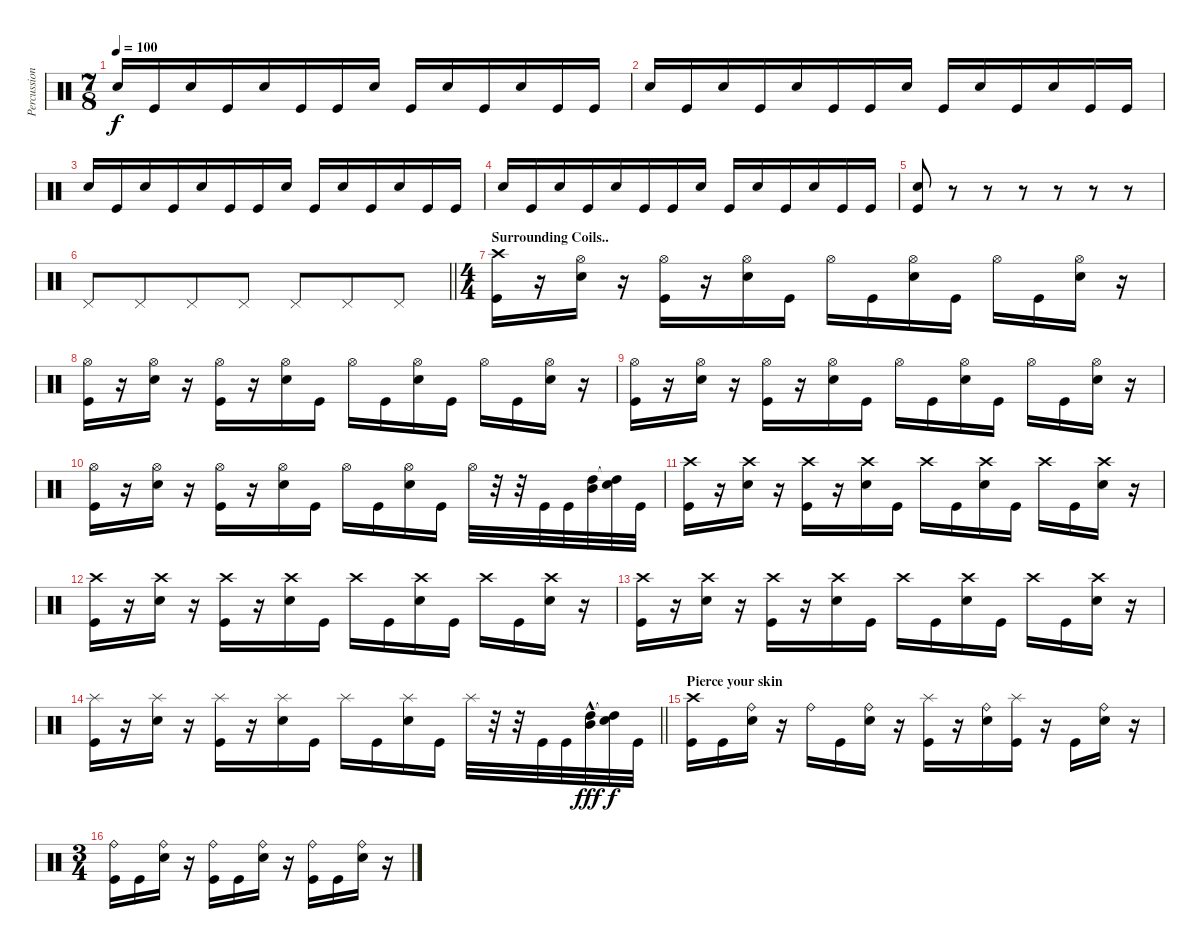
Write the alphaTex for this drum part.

\track ("Percussion" "Percussion") {instrument percussion}
\staff {score}
\articulation defaults
\ts (7 8)
\tempo 100
\clef neutral
\ks c "Snare (hit) 2".16{dy f} "Kick (hit)".16 "Snare (hit) 2".16 "Kick (hit)".16 "Snare (hit) 2".16 "Kick (hit)".16 "Kick (hit)".16 "Snare (hit) 2".16 "Kick (hit)".16 "Snare (hit) 2".16 "Kick (hit)".16 "Snare (hit) 2".16 "Kick (hit)".16 "Kick (hit)".16
|
"Snare (hit) 2".16 "Kick (hit)".16 "Snare (hit) 2".16 "Kick (hit)".16 "Snare (hit) 2".16 "Kick (hit)".16 "Kick (hit)".16 "Snare (hit) 2".16 "Kick (hit)".16 "Snare (hit) 2".16 "Kick (hit)".16 "Snare (hit) 2".16 "Kick (hit)".16 "Kick (hit)".16 |
"Snare (hit) 2".16 "Kick (hit)".16 "Snare (hit) 2".16 "Kick (hit)".16 "Snare (hit) 2".16 "Kick (hit)".16 "Kick (hit)".16 "Snare (hit) 2".16 "Kick (hit)".16 "Snare (hit) 2".16 "Kick (hit)".16 "Snare (hit) 2".16 "Kick (hit)".16 "Kick (hit)".16 |
"Snare (hit) 2".16 "Kick (hit)".16 "Snare (hit) 2".16 "Kick (hit)".16 "Snare (hit) 2".16 "Kick (hit)".16 "Kick (hit)".16 "Snare (hit) 2".16 "Kick (hit)".16 "Snare (hit) 2".16 "Kick (hit)".16 "Snare (hit) 2".16 "Kick (hit)".16 "Kick (hit)".16 |
("Kick (hit)" "Snare (hit) 2").8 r.8 r.8 r.8 r.8 r.8 r.8 |
\barLineRight lightlight "Pedal Hi-Hat (hit)".8 "Pedal Hi-Hat (hit)".8 "Pedal Hi-Hat (hit)".8 "Pedal Hi-Hat (hit)".8 "Pedal Hi-Hat (hit)".8 "Pedal Hi-Hat (hit)".8 "Pedal Hi-Hat (hit)".8
|
\ts (4 4)
\section ("" "Surrounding Coils..")
("Crash high (hit)" "Kick (hit)").16 r.16 ("Hi-Hat (open)" "Snare (hit) 2").16 r.16 ("Hi-Hat (open)" "Kick (hit)").16 r.16 ("Hi-Hat (open)" "Snare (hit) 2").16 "Kick (hit)".16 "Hi-Hat (open)".16 "Kick (hit)".16 ("Hi-Hat (open)" "Snare (hit) 2").16 "Kick (hit)".16 "Hi-Hat (open)".16 "Kick (hit)".16 ("Hi-Hat (open)" "Snare (hit) 2").16 r.16 |
("Hi-Hat (open)" "Kick (hit)").16 r.16 ("Hi-Hat (open)" "Snare (hit) 2").16 r.16 ("Hi-Hat (open)" "Kick (hit)").16 r.16 ("Hi-Hat (open)" "Snare (hit) 2").16 "Kick (hit)".16 "Hi-Hat (open)".16 "Kick (hit)".16 ("Hi-Hat (open)" "Snare (hit) 2").16 "Kick (hit)".16 "Hi-Hat (open)".16 "Kick (hit)".16 ("Hi-Hat (open)" "Snare (hit) 2").16 r.16 |
("Hi-Hat (open)" "Kick (hit)").16 r.16 ("Hi-Hat (open)" "Snare (hit) 2").16 r.16 ("Hi-Hat (open)" "Kick (hit)").16 r.16 ("Hi-Hat (open)" "Snare (hit) 2").16 "Kick (hit)".16 "Hi-Hat (open)".16 "Kick (hit)".16 ("Hi-Hat (open)" "Snare (hit) 2").16 "Kick (hit)".16 "Hi-Hat (open)".16 "Kick (hit)".16 ("Hi-Hat (open)" "Snare (hit) 2").16 r.16 |
("Hi-Hat (open)" "Kick (hit)").16 r.16 ("Hi-Hat (open)" "Snare (hit) 2").16 r.16 ("Hi-Hat (open)" "Kick (hit)").16 r.16 ("Hi-Hat (open)" "Snare (hit) 2").16 "Kick (hit)".16 "Hi-Hat (open)".16 "Kick (hit)".16 ("Hi-Hat (open)" "Snare (hit) 2").16 "Kick (hit)".16 "Hi-Hat (open)".32 r.32 r.32 "Kick (hit)".32 "Kick (hit)".32 ("Mid Tom (hit)" "High Tom (hit)").32 ("Snare (hit)"{t} "High Tom (hit)"{t}).32 "Kick (hit)".32 |
("Crash high (hit)" "Kick (hit)").16 r.16 ("Crash high (hit)" "Snare (hit) 2").16 r.16 ("Crash high (hit)" "Kick (hit)").16 r.16 ("Crash high (hit)" "Snare (hit) 2").16 "Kick (hit)".16 "Crash high (hit)".16 "Kick (hit)".16 ("Crash high (hit)" "Snare (hit) 2").16 "Kick (hit)".16 "Crash high (hit)".16 "Kick (hit)".16 ("Crash high (hit)" "Snare (hit) 2").16 r.16 |
("Crash high (hit)" "Kick (hit)").16 r.16 ("Crash high (hit)" "Snare (hit) 2").16 r.16 ("Crash high (hit)" "Kick (hit)").16 r.16 ("Crash high (hit)" "Snare (hit) 2").16 "Kick (hit)".16 "Crash high (hit)".16 "Kick (hit)".16 ("Crash high (hit)" "Snare (hit) 2").16 "Kick (hit)".16 "Crash high (hit)".16 "Kick (hit)".16 ("Crash high (hit)" "Snare (hit) 2").16 r.16 |
("Crash high (hit)" "Kick (hit)").16 r.16 ("Crash high (hit)" "Snare (hit) 2").16 r.16 ("Crash high (hit)" "Kick (hit)").16 r.16 ("Crash high (hit)" "Snare (hit) 2").16 "Kick (hit)".16 "Crash high (hit)".16 "Kick (hit)".16 ("Crash high (hit)" "Snare (hit) 2").16 "Kick (hit)".16 "Crash high (hit)".16 "Kick (hit)".16 ("Crash high (hit)" "Snare (hit) 2").16 r.16 |
\barLineRight lightlight
("Splash (hit)" "Kick (hit)").16 r.16 ("Splash (hit)" "Snare (hit) 2").16 r.16 ("Splash (hit)" "Kick (hit)").16 r.16 ("Splash (hit)" "Snare (hit) 2").16 "Kick (hit)".16 "Splash (hit)".16 "Kick (hit)".16 ("Splash (hit)" "Snare (hit) 2").16 "Kick (hit)".16 "Splash (hit)".32 r.32 r.32 "Kick (hit)".32 "Kick (hit)".32 ("Mid Tom (hit)"{hac} "High Tom (hit)"{hac}).32{dy fff} ("Snare (hit)"{t} "High Tom (hit)"{t}).32{dy f} "Kick (hit)".32 |
\section ("" "Pierce your skin")
("Crash high (hit)" "Kick (hit)").16 "Kick (hit)".16 ("Ride (bell)" "Snare (hit) 2").16 r.16 "Ride (bell)".16 "Kick (hit)".16 ("Ride (bell)" "Snare (hit) 2").16 r.16 ("Splash (hit)" "Kick (hit)").16 r.16 ("Ride (bell)" "Snare (hit) 2").16 ("Splash (hit)" "Kick (hit)").16 r.16 "Kick (hit)".16 ("Ride (bell)" "Snare (hit) 2").16 r.16 |
\ts (3 4)
("Ride (bell)" "Kick (hit)").16 "Kick (hit)".16 ("Ride (bell)" "Snare (hit) 2").16 r.16 ("Ride (bell)" "Kick (hit)").16 "Kick (hit)".16 ("Ride (bell)" "Snare (hit) 2").16 r.16 ("Ride (bell)" "Kick (hit)").16 "Kick (hit)".16 ("Ride (bell)" "Snare (hit) 2").16 r.16
